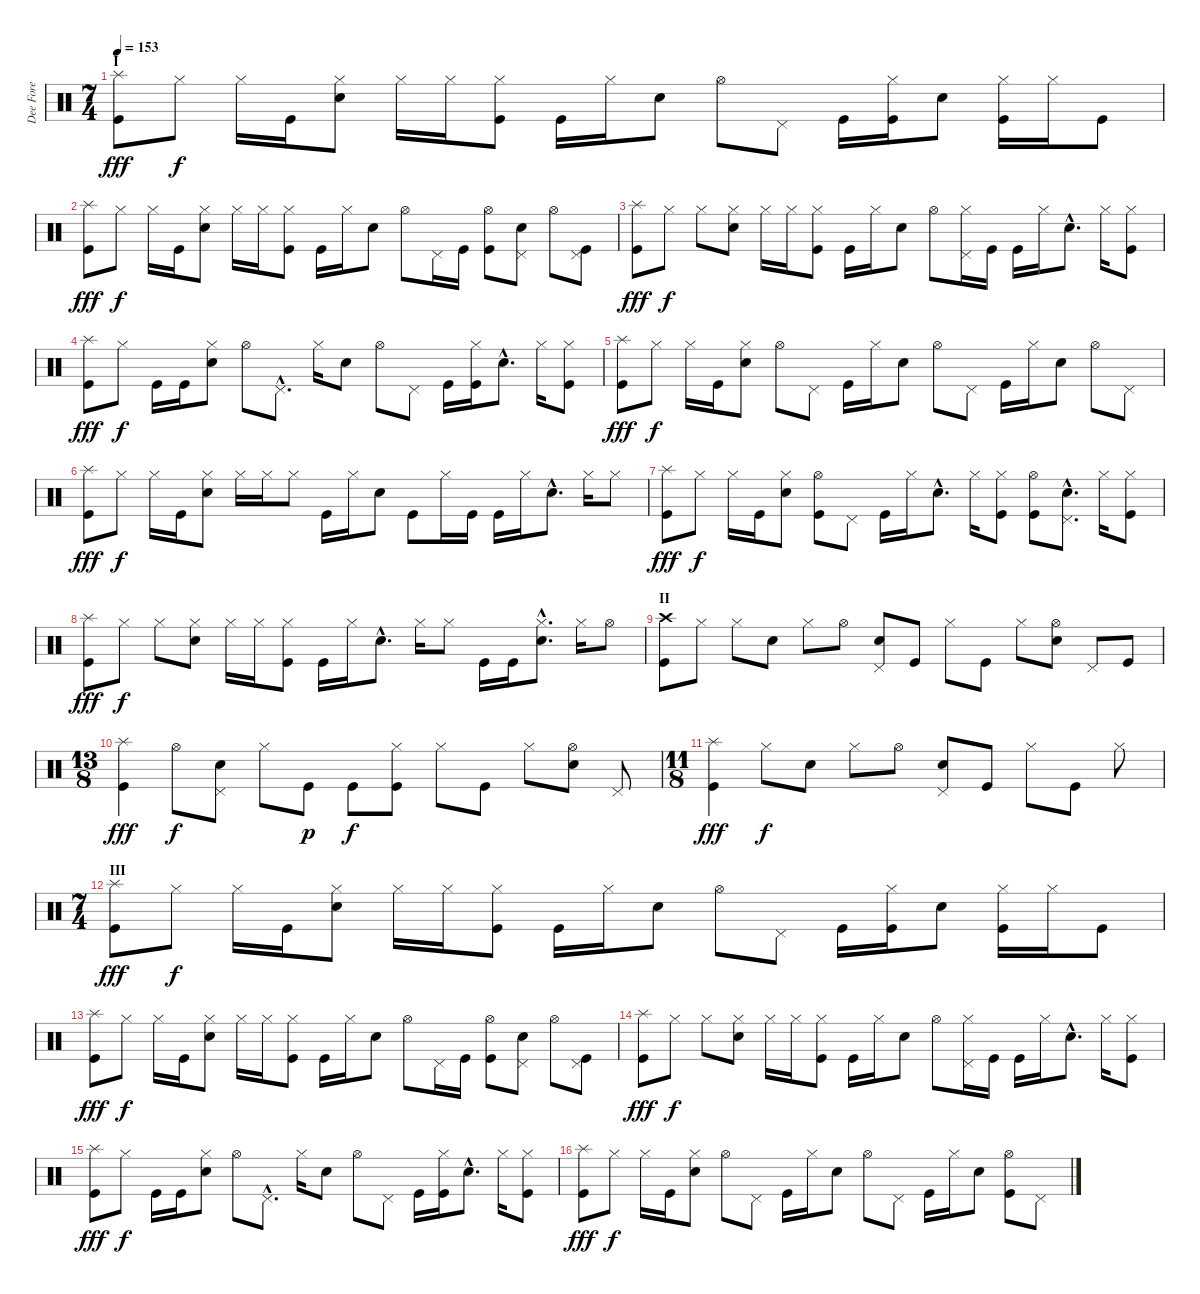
\track ("Dee Fore" "Dee Fore") {instrument percussion}
\staff {score}
\articulation defaults
\ts (7 4)
\section ("" "I")
\tempo 153
\clef neutral
\ks c
("Splash (hit)" "Kick (hit)").8{dy fff} "Hi-Hat (closed)".8{dy f} "Hi-Hat (closed)".16 "Kick (hit)".16 ("Hi-Hat (closed)" "Electric Snare (hit)").8 "Hi-Hat (closed)".16 "Hi-Hat (closed)".16 ("Hi-Hat (closed)" "Kick (hit)").8 "Kick (hit)".16 "Hi-Hat (closed)".16 "Electric Snare (hit)".8 "Hi-Hat (open)".8 "Pedal Hi-Hat (hit)".8 "Kick (hit)".16 ("Hi-Hat (closed)" "Kick (hit)").16 "Electric Snare (hit)".8 ("Hi-Hat (closed)" "Kick (hit)").16 "Hi-Hat (closed)".16 "Kick (hit)".8 |
("Splash (hit)" "Kick (hit)").8{dy fff} "Hi-Hat (closed)".8{dy f} "Hi-Hat (closed)".16 "Kick (hit)".16 ("Hi-Hat (closed)" "Electric Snare (hit)").8 "Hi-Hat (closed)".16 "Hi-Hat (closed)".16 ("Hi-Hat (closed)" "Kick (hit)").8 "Kick (hit)".16 "Hi-Hat (closed)".16 "Electric Snare (hit)".8 "Hi-Hat (open)".8 "Pedal Hi-Hat (hit)".16 "Kick (hit)".16 ("Hi-Hat (open)" "Kick (hit)").8 ("Electric Snare (hit)" "Pedal Hi-Hat (hit)").8 "Hi-Hat (open)".8 ("Pedal Hi-Hat (hit)" "Kick (hit)").8 |
("Splash (hit)" "Kick (hit)").8{dy fff} "Hi-Hat (closed)".8{dy f} "Hi-Hat (closed)".8 ("Hi-Hat (closed)" "Electric Snare (hit)").8 "Hi-Hat (closed)".16 "Hi-Hat (closed)".16 ("Hi-Hat (closed)" "Kick (hit)").8 "Kick (hit)".16 "Hi-Hat (closed)".16 "Electric Snare (hit)".8 "Hi-Hat (open)".8 ("Hi-Hat (closed)" "Pedal Hi-Hat (hit)").16 "Kick (hit)".16 "Kick (hit)".16 "Hi-Hat (closed)".16 "Electric Snare (hit)"{hac}.8{d} "Hi-Hat (closed)".16 ("Hi-Hat (closed)" "Kick (hit)").8 |
("Splash (hit)" "Kick (hit)").8{dy fff} "Hi-Hat (closed)".8{dy f} "Kick (hit)".16 "Kick (hit)".16 ("Hi-Hat (closed)" "Electric Snare (hit)").8 "Hi-Hat (open)".8 "Pedal Hi-Hat (hit)"{hac}.8{d} "Hi-Hat (closed)".16 "Electric Snare (hit)".8 "Hi-Hat (open)".8 "Pedal Hi-Hat (hit)".8 "Kick (hit)".16 ("Hi-Hat (closed)" "Kick (hit)").16 "Electric Snare (hit)"{hac}.8{d} "Hi-Hat (closed)".16 ("Hi-Hat (closed)" "Kick (hit)").8 |
("Splash (hit)" "Kick (hit)").8{dy fff} "Hi-Hat (closed)".8{dy f} "Hi-Hat (closed)".16 "Kick (hit)".16 ("Hi-Hat (closed)" "Electric Snare (hit)").8 "Hi-Hat (open)".8 "Pedal Hi-Hat (hit)".8 "Kick (hit)".16 "Hi-Hat (closed)".16 "Electric Snare (hit)".8 "Hi-Hat (open)".8 "Pedal Hi-Hat (hit)".8 "Kick (hit)".16 "Hi-Hat (closed)".16 "Electric Snare (hit)".8 "Hi-Hat (open)".8 "Pedal Hi-Hat (hit)".8 |
("Splash (hit)" "Kick (hit)").8{dy fff} "Hi-Hat (closed)".8{dy f} "Hi-Hat (closed)".16 "Kick (hit)".16 ("Hi-Hat (closed)" "Electric Snare (hit)").8 "Hi-Hat (closed)".16 "Hi-Hat (closed)".16 "Hi-Hat (closed)".8 "Kick (hit)".16 "Hi-Hat (closed)".16 "Electric Snare (hit)".8 "Kick (hit)".8 "Hi-Hat (closed)".16 "Kick (hit)".16 "Kick (hit)".16 "Hi-Hat (closed)".16 "Electric Snare (hit)"{hac}.8{d} "Hi-Hat (closed)".16 "Hi-Hat (closed)".8 |
("Splash (hit)" "Kick (hit)").8{dy fff} "Hi-Hat (closed)".8{dy f} "Hi-Hat (closed)".16 "Kick (hit)".16 ("Hi-Hat (closed)" "Electric Snare (hit)").8 ("Hi-Hat (open)" "Kick (hit)").8 "Pedal Hi-Hat (hit)".8 "Kick (hit)".16 "Hi-Hat (closed)".16 "Electric Snare (hit)"{hac}.8{d} "Hi-Hat (closed)".16 ("Hi-Hat (closed)" "Kick (hit)").8 ("Hi-Hat (open)" "Kick (hit)").8 ("Electric Snare (hit)"{hac} "Pedal Hi-Hat (hit)"{hac}).8{d} "Hi-Hat (closed)".16 ("Hi-Hat (closed)" "Kick (hit)").8 |
("Splash (hit)" "Kick (hit)").8{dy fff} "Hi-Hat (closed)".8{dy f} "Hi-Hat (closed)".8 ("Hi-Hat (closed)" "Electric Snare (hit)").8 "Hi-Hat (closed)".16 "Hi-Hat (closed)".16 ("Hi-Hat (closed)" "Kick (hit)").8 "Kick (hit)".16 "Hi-Hat (closed)".16 "Electric Snare (hit)"{hac}.8{d} "Hi-Hat (closed)".16 "Hi-Hat (closed)".8 "Kick (hit)".16 "Kick (hit)".16 ("Hi-Hat (closed)"{hac} "Electric Snare (hit)"{hac}).8{d} "Hi-Hat (closed)".16 "Hi-Hat (open)".8 |
\section ("" "II")
("Crash high (hit)" "Kick (hit)").8 "Hi-Hat (closed)".8 "Hi-Hat (closed)".8 "Electric Snare (hit)".8 "Hi-Hat (closed)".8 "Hi-Hat (open)".8 ("Electric Snare (hit)" "Pedal Hi-Hat (hit)").8 "Kick (hit)".8 "Hi-Hat (closed)".8 "Kick (hit)".8 "Hi-Hat (closed)".8 ("Hi-Hat (open)" "Electric Snare (hit)").8 "Pedal Hi-Hat (hit)".8 "Kick (hit)".8 |
\ts (13 8)
("Splash (hit)" "Kick (hit)").4{dy fff} "Hi-Hat (open)".8{dy f} ("Electric Snare (hit)" "Pedal Hi-Hat (hit)").8 "Hi-Hat (closed)".8 "Kick (hit)".8{dy p} "Kick (hit)".8{dy f} ("Hi-Hat (closed)" "Kick (hit)").8 "Hi-Hat (closed)".8 "Kick (hit)".8 "Hi-Hat (closed)".8 ("Hi-Hat (open)" "Electric Snare (hit)").8 "Pedal Hi-Hat (hit)".8 |
\ts (11 8)
("Splash (hit)" "Kick (hit)").4{dy fff} "Hi-Hat (closed)".8{dy f} "Electric Snare (hit)".8 "Hi-Hat (closed)".8 "Hi-Hat (open)".8 ("Electric Snare (hit)" "Pedal Hi-Hat (hit)").8 "Kick (hit)".8 "Hi-Hat (closed)".8 "Kick (hit)".8 "Hi-Hat (closed)".8 |
\ts (7 4)
\section ("" "III")
("Splash (hit)" "Kick (hit)").8{dy fff} "Hi-Hat (closed)".8{dy f} "Hi-Hat (closed)".16 "Kick (hit)".16 ("Hi-Hat (closed)" "Electric Snare (hit)").8 "Hi-Hat (closed)".16 "Hi-Hat (closed)".16 ("Hi-Hat (closed)" "Kick (hit)").8 "Kick (hit)".16 "Hi-Hat (closed)".16 "Electric Snare (hit)".8 "Hi-Hat (open)".8 "Pedal Hi-Hat (hit)".8 "Kick (hit)".16 ("Hi-Hat (closed)" "Kick (hit)").16 "Electric Snare (hit)".8 ("Hi-Hat (closed)" "Kick (hit)").16 "Hi-Hat (closed)".16 "Kick (hit)".8 |
("Splash (hit)" "Kick (hit)").8{dy fff} "Hi-Hat (closed)".8{dy f} "Hi-Hat (closed)".16 "Kick (hit)".16 ("Hi-Hat (closed)" "Electric Snare (hit)").8 "Hi-Hat (closed)".16 "Hi-Hat (closed)".16 ("Hi-Hat (closed)" "Kick (hit)").8 "Kick (hit)".16 "Hi-Hat (closed)".16 "Electric Snare (hit)".8 "Hi-Hat (open)".8 "Pedal Hi-Hat (hit)".16 "Kick (hit)".16 ("Hi-Hat (open)" "Kick (hit)").8 ("Electric Snare (hit)" "Pedal Hi-Hat (hit)").8 "Hi-Hat (open)".8 ("Pedal Hi-Hat (hit)" "Kick (hit)").8 |
("Splash (hit)" "Kick (hit)").8{dy fff} "Hi-Hat (closed)".8{dy f} "Hi-Hat (closed)".8 ("Hi-Hat (closed)" "Electric Snare (hit)").8 "Hi-Hat (closed)".16 "Hi-Hat (closed)".16 ("Hi-Hat (closed)" "Kick (hit)").8 "Kick (hit)".16 "Hi-Hat (closed)".16 "Electric Snare (hit)".8 "Hi-Hat (open)".8 ("Hi-Hat (closed)" "Pedal Hi-Hat (hit)").16 "Kick (hit)".16 "Kick (hit)".16 "Hi-Hat (closed)".16 "Electric Snare (hit)"{hac}.8{d} "Hi-Hat (closed)".16 ("Hi-Hat (closed)" "Kick (hit)").8 |
("Splash (hit)" "Kick (hit)").8{dy fff} "Hi-Hat (closed)".8{dy f} "Kick (hit)".16 "Kick (hit)".16 ("Hi-Hat (closed)" "Electric Snare (hit)").8 "Hi-Hat (open)".8 "Pedal Hi-Hat (hit)"{hac}.8{d} "Hi-Hat (closed)".16 "Electric Snare (hit)".8 "Hi-Hat (open)".8 "Pedal Hi-Hat (hit)".8 "Kick (hit)".16 ("Hi-Hat (closed)" "Kick (hit)").16 "Electric Snare (hit)"{hac}.8{d} "Hi-Hat (closed)".16 ("Hi-Hat (closed)" "Kick (hit)").8 |
("Splash (hit)" "Kick (hit)").8{dy fff} "Hi-Hat (closed)".8{dy f} "Hi-Hat (closed)".16 "Kick (hit)".16 ("Hi-Hat (closed)" "Electric Snare (hit)").8 "Hi-Hat (open)".8 "Pedal Hi-Hat (hit)".8 "Kick (hit)".16 "Hi-Hat (closed)".16 "Electric Snare (hit)".8 "Hi-Hat (open)".8 "Pedal Hi-Hat (hit)".8 "Kick (hit)".16 "Hi-Hat (closed)".16 "Electric Snare (hit)".8 ("Hi-Hat (open)" "Kick (hit)").8 "Pedal Hi-Hat (hit)".8
